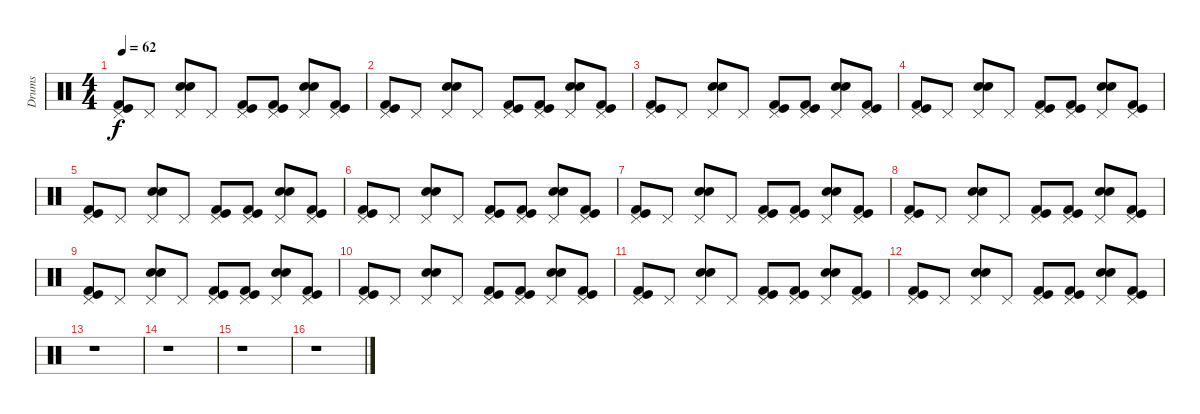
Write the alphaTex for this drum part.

\track ("Drums" "Drums") {instrument percussion}
\staff {score}
\articulation defaults
\ts (4 4)
\tempo 62
\clef neutral
\ks c
("Pedal Hi-Hat (hit)" "Kick (hit)" "Kick (hit) 2").8{dy f} "Pedal Hi-Hat (hit)".8 ("Pedal Hi-Hat (hit)" "Snare (hit) 2" "Electric Snare (hit)").8 "Pedal Hi-Hat (hit)".8 ("Pedal Hi-Hat (hit)" "Kick (hit)" "Kick (hit) 2").8 ("Pedal Hi-Hat (hit)" "Kick (hit)" "Kick (hit) 2").8 ("Pedal Hi-Hat (hit)" "Snare (hit) 2" "Electric Snare (hit)").8 ("Pedal Hi-Hat (hit)" "Kick (hit)" "Kick (hit) 2").8 |
("Pedal Hi-Hat (hit)" "Kick (hit)" "Kick (hit) 2").8 "Pedal Hi-Hat (hit)".8 ("Pedal Hi-Hat (hit)" "Snare (hit) 2" "Electric Snare (hit)").8 "Pedal Hi-Hat (hit)".8 ("Pedal Hi-Hat (hit)" "Kick (hit)" "Kick (hit) 2").8 ("Pedal Hi-Hat (hit)" "Kick (hit)" "Kick (hit) 2").8 ("Pedal Hi-Hat (hit)" "Snare (hit) 2" "Electric Snare (hit)").8 ("Pedal Hi-Hat (hit)" "Kick (hit)" "Kick (hit) 2").8 |
("Pedal Hi-Hat (hit)" "Kick (hit)" "Kick (hit) 2").8 "Pedal Hi-Hat (hit)".8 ("Pedal Hi-Hat (hit)" "Snare (hit) 2" "Electric Snare (hit)").8 "Pedal Hi-Hat (hit)".8 ("Pedal Hi-Hat (hit)" "Kick (hit)" "Kick (hit) 2").8 ("Pedal Hi-Hat (hit)" "Kick (hit)" "Kick (hit) 2").8 ("Pedal Hi-Hat (hit)" "Snare (hit) 2" "Electric Snare (hit)").8 ("Pedal Hi-Hat (hit)" "Kick (hit)" "Kick (hit) 2").8 |
("Pedal Hi-Hat (hit)" "Kick (hit)" "Kick (hit) 2").8 "Pedal Hi-Hat (hit)".8 ("Pedal Hi-Hat (hit)" "Snare (hit) 2" "Electric Snare (hit)").8 "Pedal Hi-Hat (hit)".8 ("Pedal Hi-Hat (hit)" "Kick (hit)" "Kick (hit) 2").8 ("Pedal Hi-Hat (hit)" "Kick (hit)" "Kick (hit) 2").8 ("Pedal Hi-Hat (hit)" "Snare (hit) 2" "Electric Snare (hit)").8 ("Pedal Hi-Hat (hit)" "Kick (hit)" "Kick (hit) 2").8 |
("Pedal Hi-Hat (hit)" "Kick (hit)" "Kick (hit) 2").8 "Pedal Hi-Hat (hit)".8 ("Pedal Hi-Hat (hit)" "Snare (hit) 2" "Electric Snare (hit)").8 "Pedal Hi-Hat (hit)".8 ("Pedal Hi-Hat (hit)" "Kick (hit)" "Kick (hit) 2").8 ("Pedal Hi-Hat (hit)" "Kick (hit)" "Kick (hit) 2").8 ("Pedal Hi-Hat (hit)" "Snare (hit) 2" "Electric Snare (hit)").8 ("Pedal Hi-Hat (hit)" "Kick (hit)" "Kick (hit) 2").8 |
("Pedal Hi-Hat (hit)" "Kick (hit)" "Kick (hit) 2").8 "Pedal Hi-Hat (hit)".8 ("Pedal Hi-Hat (hit)" "Snare (hit) 2" "Electric Snare (hit)").8 "Pedal Hi-Hat (hit)".8 ("Pedal Hi-Hat (hit)" "Kick (hit)" "Kick (hit) 2").8 ("Pedal Hi-Hat (hit)" "Kick (hit)" "Kick (hit) 2").8 ("Pedal Hi-Hat (hit)" "Snare (hit) 2" "Electric Snare (hit)").8 ("Pedal Hi-Hat (hit)" "Kick (hit)" "Kick (hit) 2").8 |
("Pedal Hi-Hat (hit)" "Kick (hit)" "Kick (hit) 2").8{volume 0} "Pedal Hi-Hat (hit)".8 ("Pedal Hi-Hat (hit)" "Snare (hit) 2" "Electric Snare (hit)").8 "Pedal Hi-Hat (hit)".8 ("Pedal Hi-Hat (hit)" "Kick (hit)" "Kick (hit) 2").8 ("Pedal Hi-Hat (hit)" "Kick (hit)" "Kick (hit) 2").8 ("Pedal Hi-Hat (hit)" "Snare (hit) 2" "Electric Snare (hit)").8 ("Pedal Hi-Hat (hit)" "Kick (hit)" "Kick (hit) 2").8 |
("Pedal Hi-Hat (hit)" "Kick (hit)" "Kick (hit) 2").8 "Pedal Hi-Hat (hit)".8 ("Pedal Hi-Hat (hit)" "Snare (hit) 2" "Electric Snare (hit)").8 "Pedal Hi-Hat (hit)".8 ("Pedal Hi-Hat (hit)" "Kick (hit)" "Kick (hit) 2").8 ("Pedal Hi-Hat (hit)" "Kick (hit)" "Kick (hit) 2").8 ("Pedal Hi-Hat (hit)" "Snare (hit) 2" "Electric Snare (hit)").8 ("Pedal Hi-Hat (hit)" "Kick (hit)" "Kick (hit) 2").8 |
("Pedal Hi-Hat (hit)" "Kick (hit)" "Kick (hit) 2").8 "Pedal Hi-Hat (hit)".8 ("Pedal Hi-Hat (hit)" "Snare (hit) 2" "Electric Snare (hit)").8 "Pedal Hi-Hat (hit)".8 ("Pedal Hi-Hat (hit)" "Kick (hit)" "Kick (hit) 2").8 ("Pedal Hi-Hat (hit)" "Kick (hit)" "Kick (hit) 2").8 ("Pedal Hi-Hat (hit)" "Snare (hit) 2" "Electric Snare (hit)").8 ("Pedal Hi-Hat (hit)" "Kick (hit)" "Kick (hit) 2").8 |
("Pedal Hi-Hat (hit)" "Kick (hit)" "Kick (hit) 2").8 "Pedal Hi-Hat (hit)".8 ("Pedal Hi-Hat (hit)" "Snare (hit) 2" "Electric Snare (hit)").8 "Pedal Hi-Hat (hit)".8 ("Pedal Hi-Hat (hit)" "Kick (hit)" "Kick (hit) 2").8 ("Pedal Hi-Hat (hit)" "Kick (hit)" "Kick (hit) 2").8 ("Pedal Hi-Hat (hit)" "Snare (hit) 2" "Electric Snare (hit)").8 ("Pedal Hi-Hat (hit)" "Kick (hit)" "Kick (hit) 2").8 |
("Pedal Hi-Hat (hit)" "Kick (hit)" "Kick (hit) 2").8 "Pedal Hi-Hat (hit)".8 ("Pedal Hi-Hat (hit)" "Snare (hit) 2" "Electric Snare (hit)").8 "Pedal Hi-Hat (hit)".8 ("Pedal Hi-Hat (hit)" "Kick (hit)" "Kick (hit) 2").8 ("Pedal Hi-Hat (hit)" "Kick (hit)" "Kick (hit) 2").8 ("Pedal Hi-Hat (hit)" "Snare (hit) 2" "Electric Snare (hit)").8 ("Pedal Hi-Hat (hit)" "Kick (hit)" "Kick (hit) 2").8 |
("Pedal Hi-Hat (hit)" "Kick (hit)" "Kick (hit) 2").8 "Pedal Hi-Hat (hit)".8 ("Pedal Hi-Hat (hit)" "Snare (hit) 2" "Electric Snare (hit)").8 "Pedal Hi-Hat (hit)".8 ("Pedal Hi-Hat (hit)" "Kick (hit)" "Kick (hit) 2").8 ("Pedal Hi-Hat (hit)" "Kick (hit)" "Kick (hit) 2").8 ("Pedal Hi-Hat (hit)" "Snare (hit) 2" "Electric Snare (hit)").8 ("Pedal Hi-Hat (hit)" "Kick (hit)" "Kick (hit) 2").8 |
r.1 |
r.1 |
r.1 |
r.1
